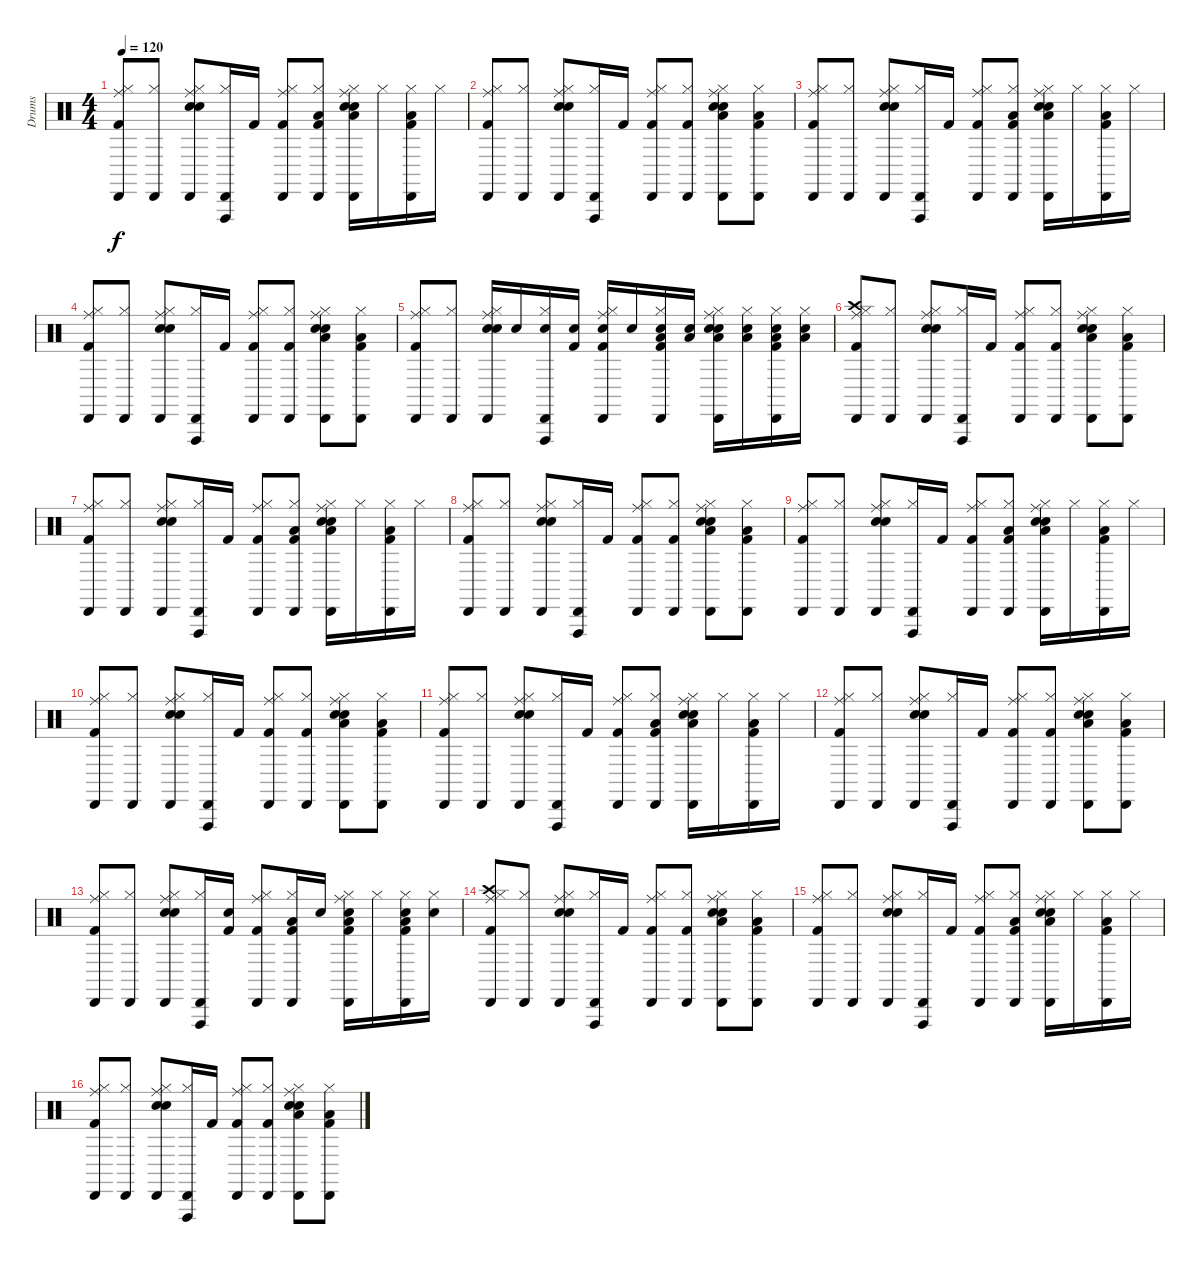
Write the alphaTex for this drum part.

\track ("Drums" "Drums") {instrument percussion}
\staff {score}
\articulation defaults
\ts (4 4)
\tempo 120
\clef neutral
\ks c
("Kick (hit) 2" "Hi-Hat (closed)" "Ride (middle)" "Cabasa (hit)").8{dy f} ("Hi-Hat (closed)" "Cabasa (hit)").8 ("Snare (hit) 2" "Hi-Hat (closed)" "Ride (middle)" "Cabasa (hit)" "Hand Clap (hit)").8 ("Hi-Hat (closed)" "Cabasa (hit)" "Vibraslap (hit)").16 "Kick (hit) 2".16 ("Kick (hit) 2" "Hi-Hat (closed)" "Ride (middle)" "Cabasa (hit)").8 ("Kick (hit) 2" "Hi-Hat (closed)" "Low Tom (hit)" "Cabasa (hit)").8 ("Snare (hit) 2" "Hi-Hat (closed)" "Ride (middle)" "Low Tom (hit)" "Cabasa (hit)" "Hand Clap (hit)").16 "Hi-Hat (closed)".16 ("Kick (hit) 2" "Hi-Hat (closed)" "Low Tom (hit)" "Cabasa (hit)").16 "Hi-Hat (closed)".16 |
("Kick (hit) 2" "Hi-Hat (closed)" "Ride (middle)" "Cabasa (hit)").8 ("Hi-Hat (closed)" "Cabasa (hit)").8 ("Snare (hit) 2" "Hi-Hat (closed)" "Ride (middle)" "Cabasa (hit)" "Hand Clap (hit)").8 ("Hi-Hat (closed)" "Cabasa (hit)" "Vibraslap (hit)").16 "Kick (hit) 2".16 ("Kick (hit) 2" "Hi-Hat (closed)" "Ride (middle)" "Cabasa (hit)").8 ("Kick (hit) 2" "Hi-Hat (closed)" "Cabasa (hit)").8 ("Snare (hit) 2" "Hi-Hat (closed)" "Ride (middle)" "Low Tom (hit)" "Cabasa (hit)" "Hand Clap (hit)").8 ("Kick (hit) 2" "Hi-Hat (closed)" "Low Tom (hit)" "Cabasa (hit)").8 |
("Kick (hit) 2" "Hi-Hat (closed)" "Ride (middle)" "Cabasa (hit)").8 ("Hi-Hat (closed)" "Cabasa (hit)").8 ("Snare (hit) 2" "Hi-Hat (closed)" "Ride (middle)" "Cabasa (hit)" "Hand Clap (hit)").8 ("Hi-Hat (closed)" "Cabasa (hit)" "Vibraslap (hit)").16 "Kick (hit) 2".16 ("Kick (hit) 2" "Hi-Hat (closed)" "Ride (middle)" "Cabasa (hit)").8 ("Kick (hit) 2" "Hi-Hat (closed)" "Low Tom (hit)" "Cabasa (hit)").8 ("Snare (hit) 2" "Hi-Hat (closed)" "Ride (middle)" "Low Tom (hit)" "Cabasa (hit)" "Hand Clap (hit)").16 "Hi-Hat (closed)".16 ("Kick (hit) 2" "Hi-Hat (closed)" "Low Tom (hit)" "Cabasa (hit)").16 "Hi-Hat (closed)".16 |
("Kick (hit) 2" "Hi-Hat (closed)" "Ride (middle)" "Cabasa (hit)").8 ("Hi-Hat (closed)" "Cabasa (hit)").8 ("Snare (hit) 2" "Hi-Hat (closed)" "Ride (middle)" "Cabasa (hit)" "Hand Clap (hit)").8 ("Hi-Hat (closed)" "Cabasa (hit)" "Vibraslap (hit)").16 "Kick (hit) 2".16 ("Kick (hit) 2" "Hi-Hat (closed)" "Ride (middle)" "Cabasa (hit)").8 ("Kick (hit) 2" "Hi-Hat (closed)" "Cabasa (hit)").8 ("Snare (hit) 2" "Hi-Hat (closed)" "Ride (middle)" "Low Tom (hit)" "Cabasa (hit)" "Hand Clap (hit)").8 ("Kick (hit) 2" "Hi-Hat (closed)" "Low Tom (hit)" "Cabasa (hit)").8 |
("Kick (hit) 2" "Hi-Hat (closed)" "Ride (middle)" "Cabasa (hit)").8 ("Hi-Hat (closed)" "Cabasa (hit)").8 ("Snare (hit) 2" "Hi-Hat (closed)" "Ride (middle)" "Cabasa (hit)" "Hand Clap (hit)").16 "Snare (hit) 2".16 ("Snare (hit) 2" "Hi-Hat (closed)" "Cabasa (hit)" "Vibraslap (hit)").16 ("Kick (hit) 2" "Snare (hit) 2").16 ("Kick (hit) 2" "Snare (hit) 2" "Hi-Hat (closed)" "Ride (middle)" "Cabasa (hit)").16 "Snare (hit) 2".16 ("Kick (hit) 2" "Snare (hit) 2" "Hi-Hat (closed)" "Low Tom (hit)" "Cabasa (hit)").16 ("Snare (hit) 2" "Low Tom (hit)").16 ("Snare (hit) 2" "Hi-Hat (closed)" "Ride (middle)" "Low Floor Tom (hit)" "Cabasa (hit)" "Hand Clap (hit)").16 ("Snare (hit) 2" "Hi-Hat (closed)" "Low Floor Tom (hit)").16 ("Kick (hit) 2" "Snare (hit) 2" "Hi-Hat (closed)" "Low Floor Tom (hit)" "Cabasa (hit)").16 ("Snare (hit) 2" "Hi-Hat (closed)" "Low Floor Tom (hit)").16 |
("Kick (hit) 2" "Hi-Hat (closed)" "Crash high (hit)" "Ride (middle)" "Cabasa (hit)").8 ("Hi-Hat (closed)" "Cabasa (hit)").8 ("Snare (hit) 2" "Hi-Hat (closed)" "Ride (middle)" "Cabasa (hit)" "Hand Clap (hit)").8 ("Hi-Hat (closed)" "Cabasa (hit)" "Vibraslap (hit)").16 "Kick (hit) 2".16 ("Kick (hit) 2" "Hi-Hat (closed)" "Ride (middle)" "Cabasa (hit)").8 ("Kick (hit) 2" "Hi-Hat (closed)" "Cabasa (hit)").8 ("Snare (hit) 2" "Hi-Hat (closed)" "Ride (middle)" "Low Tom (hit)" "Cabasa (hit)" "Hand Clap (hit)").8 ("Kick (hit) 2" "Hi-Hat (closed)" "Low Tom (hit)" "Cabasa (hit)").8 |
("Kick (hit) 2" "Hi-Hat (closed)" "Ride (middle)" "Cabasa (hit)").8 ("Hi-Hat (closed)" "Cabasa (hit)").8 ("Snare (hit) 2" "Hi-Hat (closed)" "Ride (middle)" "Cabasa (hit)" "Hand Clap (hit)").8 ("Hi-Hat (closed)" "Cabasa (hit)" "Vibraslap (hit)").16 "Kick (hit) 2".16 ("Kick (hit) 2" "Hi-Hat (closed)" "Ride (middle)" "Cabasa (hit)").8 ("Kick (hit) 2" "Hi-Hat (closed)" "Low Tom (hit)" "Cabasa (hit)").8 ("Snare (hit) 2" "Hi-Hat (closed)" "Ride (middle)" "Low Tom (hit)" "Cabasa (hit)" "Hand Clap (hit)").16 "Hi-Hat (closed)".16 ("Kick (hit) 2" "Hi-Hat (closed)" "Low Tom (hit)" "Cabasa (hit)").16 "Hi-Hat (closed)".16 |
("Kick (hit) 2" "Hi-Hat (closed)" "Ride (middle)" "Cabasa (hit)").8 ("Hi-Hat (closed)" "Cabasa (hit)").8 ("Snare (hit) 2" "Hi-Hat (closed)" "Ride (middle)" "Cabasa (hit)" "Hand Clap (hit)").8 ("Hi-Hat (closed)" "Cabasa (hit)" "Vibraslap (hit)").16 "Kick (hit) 2".16 ("Kick (hit) 2" "Hi-Hat (closed)" "Ride (middle)" "Cabasa (hit)").8 ("Kick (hit) 2" "Hi-Hat (closed)" "Cabasa (hit)").8 ("Snare (hit) 2" "Hi-Hat (closed)" "Ride (middle)" "Low Tom (hit)" "Cabasa (hit)" "Hand Clap (hit)").8 ("Kick (hit) 2" "Hi-Hat (closed)" "Low Tom (hit)" "Cabasa (hit)").8 |
("Kick (hit) 2" "Hi-Hat (closed)" "Ride (middle)" "Cabasa (hit)").8 ("Hi-Hat (closed)" "Cabasa (hit)").8 ("Snare (hit) 2" "Hi-Hat (closed)" "Ride (middle)" "Cabasa (hit)" "Hand Clap (hit)").8 ("Hi-Hat (closed)" "Cabasa (hit)" "Vibraslap (hit)").16 "Kick (hit) 2".16 ("Kick (hit) 2" "Hi-Hat (closed)" "Ride (middle)" "Cabasa (hit)").8 ("Kick (hit) 2" "Hi-Hat (closed)" "Low Tom (hit)" "Cabasa (hit)").8 ("Snare (hit) 2" "Hi-Hat (closed)" "Ride (middle)" "Low Tom (hit)" "Cabasa (hit)" "Hand Clap (hit)").16 "Hi-Hat (closed)".16 ("Kick (hit) 2" "Hi-Hat (closed)" "Low Tom (hit)" "Cabasa (hit)").16 "Hi-Hat (closed)".16 |
("Kick (hit) 2" "Hi-Hat (closed)" "Ride (middle)" "Cabasa (hit)").8 ("Hi-Hat (closed)" "Cabasa (hit)").8 ("Snare (hit) 2" "Hi-Hat (closed)" "Ride (middle)" "Cabasa (hit)" "Hand Clap (hit)").8 ("Hi-Hat (closed)" "Cabasa (hit)" "Vibraslap (hit)").16 "Kick (hit) 2".16 ("Kick (hit) 2" "Hi-Hat (closed)" "Ride (middle)" "Cabasa (hit)").8 ("Kick (hit) 2" "Hi-Hat (closed)" "Cabasa (hit)").8 ("Snare (hit) 2" "Hi-Hat (closed)" "Ride (middle)" "Low Tom (hit)" "Cabasa (hit)" "Hand Clap (hit)").8 ("Kick (hit) 2" "Hi-Hat (closed)" "Low Tom (hit)" "Cabasa (hit)").8 |
("Kick (hit) 2" "Hi-Hat (closed)" "Ride (middle)" "Cabasa (hit)").8 ("Hi-Hat (closed)" "Cabasa (hit)").8 ("Snare (hit) 2" "Hi-Hat (closed)" "Ride (middle)" "Cabasa (hit)" "Hand Clap (hit)").8 ("Hi-Hat (closed)" "Cabasa (hit)" "Vibraslap (hit)").16 "Kick (hit) 2".16 ("Kick (hit) 2" "Hi-Hat (closed)" "Ride (middle)" "Cabasa (hit)").8 ("Kick (hit) 2" "Hi-Hat (closed)" "Low Tom (hit)" "Cabasa (hit)").8 ("Snare (hit) 2" "Hi-Hat (closed)" "Ride (middle)" "Low Tom (hit)" "Cabasa (hit)" "Hand Clap (hit)").16 "Hi-Hat (closed)".16 ("Kick (hit) 2" "Hi-Hat (closed)" "Low Tom (hit)" "Cabasa (hit)").16 "Hi-Hat (closed)".16 |
("Kick (hit) 2" "Hi-Hat (closed)" "Ride (middle)" "Cabasa (hit)").8 ("Hi-Hat (closed)" "Cabasa (hit)").8 ("Snare (hit) 2" "Hi-Hat (closed)" "Ride (middle)" "Cabasa (hit)" "Hand Clap (hit)").8 ("Hi-Hat (closed)" "Cabasa (hit)" "Vibraslap (hit)").16 "Kick (hit) 2".16 ("Kick (hit) 2" "Hi-Hat (closed)" "Ride (middle)" "Cabasa (hit)").8 ("Kick (hit) 2" "Hi-Hat (closed)" "Cabasa (hit)").8 ("Snare (hit) 2" "Hi-Hat (closed)" "Ride (middle)" "Low Tom (hit)" "Cabasa (hit)" "Hand Clap (hit)").8 ("Kick (hit) 2" "Hi-Hat (closed)" "Low Tom (hit)" "Cabasa (hit)").8 |
("Kick (hit) 2" "Hi-Hat (closed)" "Ride (middle)" "Cabasa (hit)").8 ("Hi-Hat (closed)" "Cabasa (hit)").8 ("Snare (hit) 2" "Hi-Hat (closed)" "Ride (middle)" "Cabasa (hit)" "Hand Clap (hit)").8 ("Hi-Hat (closed)" "Cabasa (hit)" "Vibraslap (hit)").16 ("Kick (hit) 2" "Snare (hit) 2").16 ("Kick (hit) 2" "Hi-Hat (closed)" "Ride (middle)" "Cabasa (hit)").8 ("Kick (hit) 2" "Hi-Hat (closed)" "Low Tom (hit)" "Cabasa (hit)").16 "Snare (hit) 2".16 ("Kick (hit) 2" "Snare (hit) 2" "Hi-Hat (closed)" "Ride (middle)" "Low Tom (hit)" "Cabasa (hit)").16 "Hi-Hat (closed)".16 ("Kick (hit) 2" "Snare (hit) 2" "Hi-Hat (closed)" "Low Tom (hit)" "Cabasa (hit)").16 ("Snare (hit) 2" "Hi-Hat (closed)").16 |
("Kick (hit) 2" "Hi-Hat (closed)" "Crash high (hit)" "Ride (middle)" "Cabasa (hit)").8 ("Hi-Hat (closed)" "Cabasa (hit)").8 ("Snare (hit) 2" "Hi-Hat (closed)" "Ride (middle)" "Cabasa (hit)" "Hand Clap (hit)").8 ("Hi-Hat (closed)" "Cabasa (hit)" "Vibraslap (hit)").16 "Kick (hit) 2".16 ("Kick (hit) 2" "Hi-Hat (closed)" "Ride (middle)" "Cabasa (hit)").8 ("Kick (hit) 2" "Hi-Hat (closed)" "Cabasa (hit)").8 ("Snare (hit) 2" "Hi-Hat (closed)" "Ride (middle)" "Low Tom (hit)" "Cabasa (hit)" "Hand Clap (hit)").8 ("Kick (hit) 2" "Hi-Hat (closed)" "Low Tom (hit)" "Cabasa (hit)").8 |
("Kick (hit) 2" "Hi-Hat (closed)" "Ride (middle)" "Cabasa (hit)").8 ("Hi-Hat (closed)" "Cabasa (hit)").8 ("Snare (hit) 2" "Hi-Hat (closed)" "Ride (middle)" "Cabasa (hit)" "Hand Clap (hit)").8 ("Hi-Hat (closed)" "Cabasa (hit)" "Vibraslap (hit)").16 "Kick (hit) 2".16 ("Kick (hit) 2" "Hi-Hat (closed)" "Ride (middle)" "Cabasa (hit)").8 ("Kick (hit) 2" "Hi-Hat (closed)" "Low Tom (hit)" "Cabasa (hit)").8 ("Snare (hit) 2" "Hi-Hat (closed)" "Ride (middle)" "Low Tom (hit)" "Cabasa (hit)" "Hand Clap (hit)").16 "Hi-Hat (closed)".16 ("Kick (hit) 2" "Hi-Hat (closed)" "Low Tom (hit)" "Cabasa (hit)").16 "Hi-Hat (closed)".16 |
("Kick (hit) 2" "Hi-Hat (closed)" "Ride (middle)" "Cabasa (hit)").8 ("Hi-Hat (closed)" "Cabasa (hit)").8 ("Snare (hit) 2" "Hi-Hat (closed)" "Ride (middle)" "Cabasa (hit)" "Hand Clap (hit)").8 ("Hi-Hat (closed)" "Cabasa (hit)" "Vibraslap (hit)").16 "Kick (hit) 2".16 ("Kick (hit) 2" "Hi-Hat (closed)" "Ride (middle)" "Cabasa (hit)").8 ("Kick (hit) 2" "Hi-Hat (closed)" "Cabasa (hit)").8 ("Snare (hit) 2" "Hi-Hat (closed)" "Ride (middle)" "Low Tom (hit)" "Cabasa (hit)" "Hand Clap (hit)").8 ("Kick (hit) 2" "Hi-Hat (closed)" "Low Tom (hit)" "Cabasa (hit)").8
